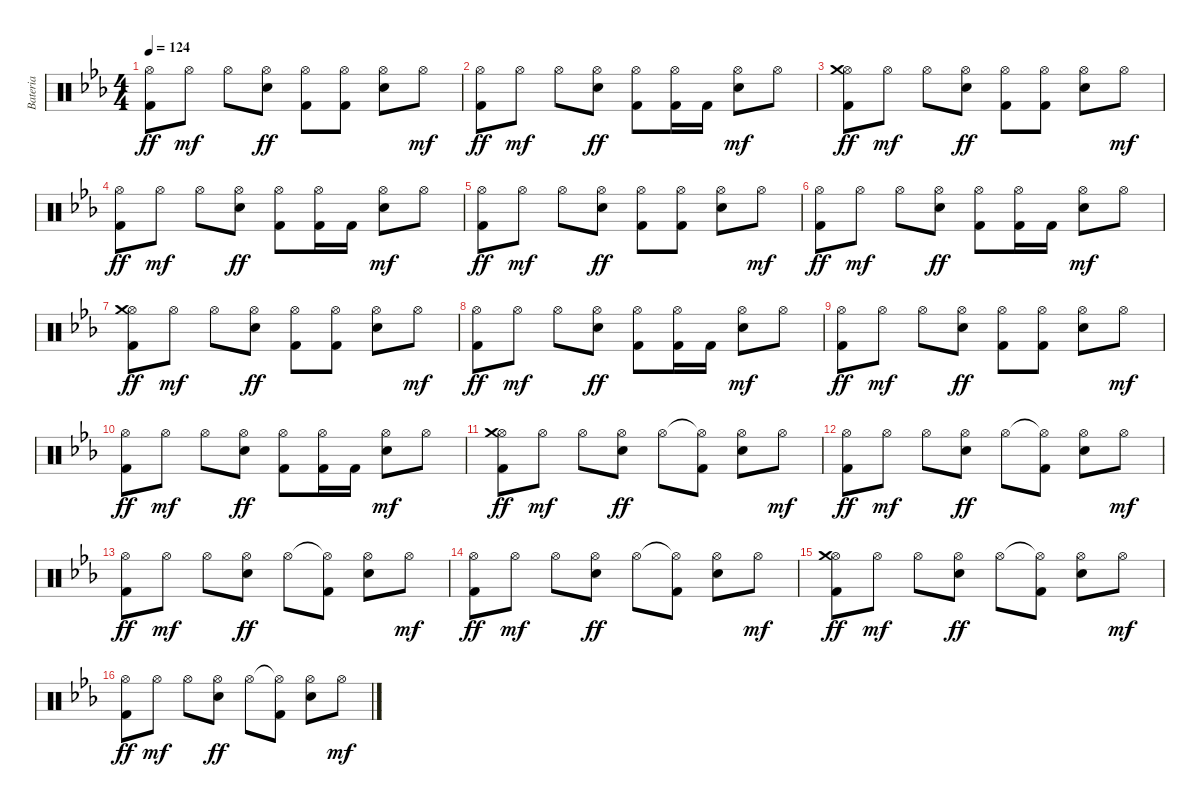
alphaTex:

\track ("Bateria" "Bateria") {instrument percussion}
\staff {score}
\articulation defaults
\ts (4 4)
\tempo 124
\clef neutral
\ks eb
("Hi-Hat (open)" "Kick (hit) 2").8{dy ff} "Hi-Hat (open)".8{dy mf} "Hi-Hat (open)".8 ("Hi-Hat (open)" "Electric Snare (hit)").8{dy ff} ("Hi-Hat (open)" "Kick (hit) 2").8 ("Hi-Hat (open)" "Kick (hit) 2").8 ("Hi-Hat (open)" "Electric Snare (hit)").8 "Hi-Hat (open)".8{dy mf} |
("Hi-Hat (open)" "Kick (hit) 2").8{dy ff} "Hi-Hat (open)".8{dy mf} "Hi-Hat (open)".8 ("Hi-Hat (open)" "Electric Snare (hit)").8{dy ff} ("Hi-Hat (open)" "Kick (hit) 2").8 ("Hi-Hat (open)" "Kick (hit) 2").16 "Kick (hit) 2".16 ("Electric Snare (hit)" "Hi-Hat (open)").8{dy mf} "Hi-Hat (open)".8 |
("Hi-Hat (open)" "Kick (hit) 2" "Crash medium (hit)").8{dy ff} "Hi-Hat (open)".8{dy mf} "Hi-Hat (open)".8 ("Hi-Hat (open)" "Electric Snare (hit)").8{dy ff} ("Hi-Hat (open)" "Kick (hit) 2").8 ("Hi-Hat (open)" "Kick (hit) 2").8 ("Hi-Hat (open)" "Electric Snare (hit)").8 "Hi-Hat (open)".8{dy mf} |
("Hi-Hat (open)" "Kick (hit) 2").8{dy ff} "Hi-Hat (open)".8{dy mf} "Hi-Hat (open)".8 ("Hi-Hat (open)" "Electric Snare (hit)").8{dy ff} ("Hi-Hat (open)" "Kick (hit) 2").8 ("Hi-Hat (open)" "Kick (hit) 2").16 "Kick (hit) 2".16 ("Electric Snare (hit)" "Hi-Hat (open)").8{dy mf} "Hi-Hat (open)".8 |
("Hi-Hat (open)" "Kick (hit) 2").8{dy ff} "Hi-Hat (open)".8{dy mf} "Hi-Hat (open)".8 ("Hi-Hat (open)" "Electric Snare (hit)").8{dy ff} ("Hi-Hat (open)" "Kick (hit) 2").8 ("Hi-Hat (open)" "Kick (hit) 2").8 ("Hi-Hat (open)" "Electric Snare (hit)").8 "Hi-Hat (open)".8{dy mf} |
("Hi-Hat (open)" "Kick (hit) 2").8{dy ff} "Hi-Hat (open)".8{dy mf} "Hi-Hat (open)".8 ("Hi-Hat (open)" "Electric Snare (hit)").8{dy ff} ("Hi-Hat (open)" "Kick (hit) 2").8 ("Hi-Hat (open)" "Kick (hit) 2").16 "Kick (hit) 2".16 ("Electric Snare (hit)" "Hi-Hat (open)").8{dy mf} "Hi-Hat (open)".8 |
("Hi-Hat (open)" "Kick (hit) 2" "Crash medium (hit)").8{dy ff} "Hi-Hat (open)".8{dy mf} "Hi-Hat (open)".8 ("Hi-Hat (open)" "Electric Snare (hit)").8{dy ff} ("Hi-Hat (open)" "Kick (hit) 2").8 ("Hi-Hat (open)" "Kick (hit) 2").8 ("Hi-Hat (open)" "Electric Snare (hit)").8 "Hi-Hat (open)".8{dy mf} |
("Hi-Hat (open)" "Kick (hit) 2").8{dy ff} "Hi-Hat (open)".8{dy mf} "Hi-Hat (open)".8 ("Hi-Hat (open)" "Electric Snare (hit)").8{dy ff} ("Hi-Hat (open)" "Kick (hit) 2").8 ("Hi-Hat (open)" "Kick (hit) 2").16 "Kick (hit) 2".16 ("Electric Snare (hit)" "Hi-Hat (open)").8{dy mf} "Hi-Hat (open)".8 |
("Hi-Hat (open)" "Kick (hit) 2").8{dy ff} "Hi-Hat (open)".8{dy mf} "Hi-Hat (open)".8 ("Hi-Hat (open)" "Electric Snare (hit)").8{dy ff} ("Hi-Hat (open)" "Kick (hit) 2").8 ("Hi-Hat (open)" "Kick (hit) 2").8 ("Hi-Hat (open)" "Electric Snare (hit)").8 "Hi-Hat (open)".8{dy mf} |
("Hi-Hat (open)" "Kick (hit) 2").8{dy ff} "Hi-Hat (open)".8{dy mf} "Hi-Hat (open)".8 ("Hi-Hat (open)" "Electric Snare (hit)").8{dy ff} ("Hi-Hat (open)" "Kick (hit) 2").8 ("Hi-Hat (open)" "Kick (hit) 2").16 "Kick (hit) 2".16 ("Electric Snare (hit)" "Hi-Hat (open)").8{dy mf} "Hi-Hat (open)".8 |
("Hi-Hat (open)" "Kick (hit) 2" "Crash medium (hit)").8{dy ff} "Hi-Hat (open)".8{dy mf} "Hi-Hat (open)".8 ("Hi-Hat (open)" "Electric Snare (hit)").8{dy ff} "Hi-Hat (open)".8 ("Hi-Hat (open)"{t} "Kick (hit) 2").8 ("Hi-Hat (open)" "Electric Snare (hit)").8 "Hi-Hat (open)".8{dy mf} |
("Hi-Hat (open)" "Kick (hit) 2").8{dy ff} "Hi-Hat (open)".8{dy mf} "Hi-Hat (open)".8 ("Hi-Hat (open)" "Electric Snare (hit)").8{dy ff} "Hi-Hat (open)".8 ("Hi-Hat (open)"{t} "Kick (hit) 2").8 ("Hi-Hat (open)" "Electric Snare (hit)").8 "Hi-Hat (open)".8{dy mf} |
("Hi-Hat (open)" "Kick (hit) 2").8{dy ff} "Hi-Hat (open)".8{dy mf} "Hi-Hat (open)".8 ("Hi-Hat (open)" "Electric Snare (hit)").8{dy ff} "Hi-Hat (open)".8 ("Hi-Hat (open)"{t} "Kick (hit) 2").8 ("Hi-Hat (open)" "Electric Snare (hit)").8 "Hi-Hat (open)".8{dy mf} |
("Hi-Hat (open)" "Kick (hit) 2").8{dy ff} "Hi-Hat (open)".8{dy mf} "Hi-Hat (open)".8 ("Hi-Hat (open)" "Electric Snare (hit)").8{dy ff} "Hi-Hat (open)".8 ("Hi-Hat (open)"{t} "Kick (hit) 2").8 ("Hi-Hat (open)" "Electric Snare (hit)").8 "Hi-Hat (open)".8{dy mf} |
("Hi-Hat (open)" "Kick (hit) 2" "Crash medium (hit)").8{dy ff} "Hi-Hat (open)".8{dy mf} "Hi-Hat (open)".8 ("Hi-Hat (open)" "Electric Snare (hit)").8{dy ff} "Hi-Hat (open)".8 ("Hi-Hat (open)"{t} "Kick (hit) 2").8 ("Hi-Hat (open)" "Electric Snare (hit)").8 "Hi-Hat (open)".8{dy mf} |
("Hi-Hat (open)" "Kick (hit) 2").8{dy ff} "Hi-Hat (open)".8{dy mf} "Hi-Hat (open)".8 ("Hi-Hat (open)" "Electric Snare (hit)").8{dy ff} "Hi-Hat (open)".8 ("Hi-Hat (open)"{t} "Kick (hit) 2").8 ("Hi-Hat (open)" "Electric Snare (hit)").8 "Hi-Hat (open)".8{dy mf}
